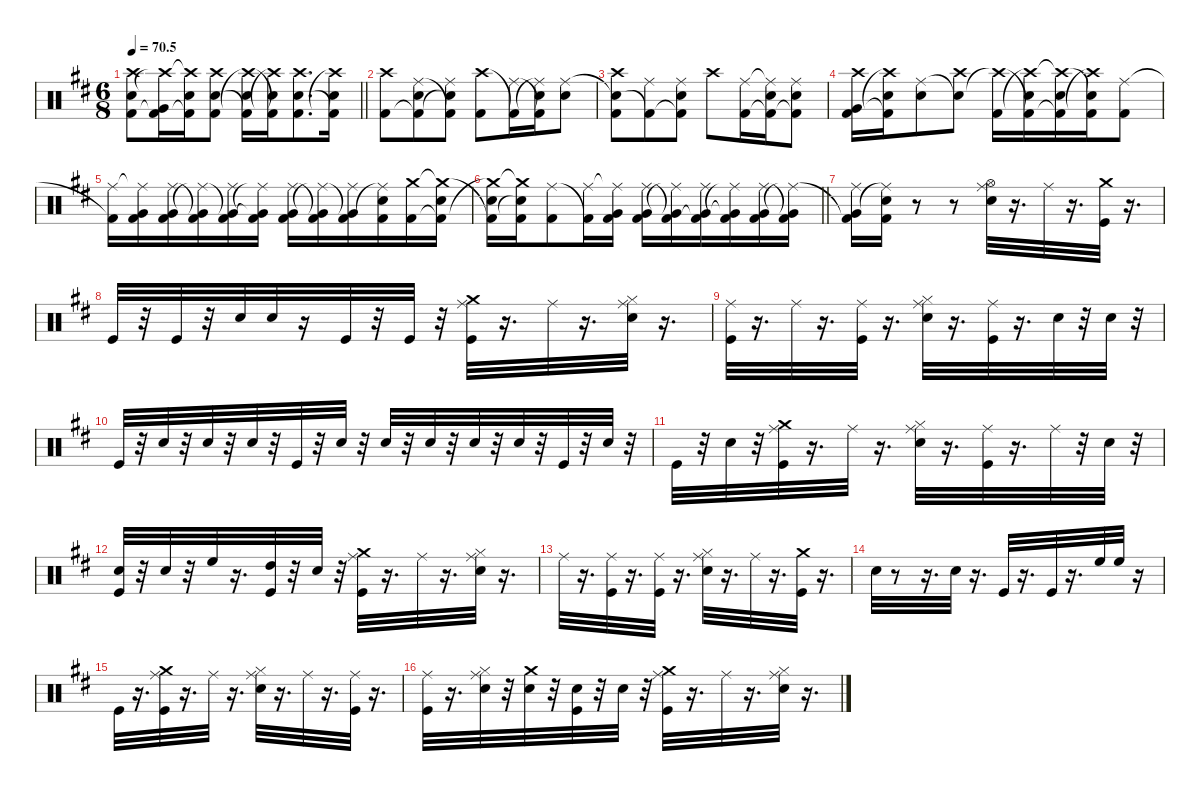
\defaultSystemsLayout 4
\hideDynamics
\bracketExtendMode nobrackets
\singleTrackTrackNamePolicy hidden
\multiTrackTrackNamePolicy hidden
\firstSystemTrackNameMode fullname
\firstSystemTrackNameOrientation horizontal
\otherSystemsTrackNameOrientation horizontal
\track ("Drumkit" "drm.") {defaultSystemsLayout 4 instrument percussion}
\staff {score}
\articulation defaults
\ts (6 8)
\tempo
70.5
\accidentals auto
\clef neutral
\ottava regular
\simile none
\barLineRight lightlight
\ks bminor
("Snare (hit) 2"{acc forcenatural} "Kick (hit) 2"{acc forcenatural} "Crash high (hit)"{acc #}).8{dy ff beam Down} ("Crash high (hit)"{t acc #} "Kick (hit) 2"{t acc forcenatural} "Very Low Tom (hit)"{acc forcenatural}).16{beam Down} ("Crash high (hit)"{t acc #} "Kick (hit) 2"{t acc forcenatural} "Snare (hit) 2"{acc forcenatural}).16{beam Down} ("Snare (hit) 2"{acc forcenatural} "Kick (hit) 2"{acc forcenatural} "Crash high (hit)"{acc #}).8{beam Down} ("Kick (hit) 2"{t acc forcenatural} "Crash high (hit)"{t acc #} "Snare (hit) 2"{acc forcenatural}).16{beam Down} ("Crash high (hit)"{t acc #} "Kick (hit) 2"{t acc forcenatural} "Snare (hit) 2"{acc forcenatural}).16{beam Down} ("Snare (hit) 2"{acc forcenatural} "Kick (hit) 2"{acc forcenatural} "Crash high (hit)"{acc #}).8{d beam Down} ("Kick (hit) 2"{t acc forcenatural} "Crash high (hit)"{t acc #} "Snare (hit) 2"{acc forcenatural}).16{beam Down} |
("Crash high (hit)"{acc #} "Kick (hit) 2"{acc forcenatural}).8{beam Down} ("Ride (middle)"{acc #} "Kick (hit) 2"{t acc forcenatural} "Snare (hit) 2"{acc forcenatural}).8{beam Down} ("Kick (hit) 2"{t acc forcenatural} "Snare (hit) 2"{t acc forcenatural} "Ride (middle)"{acc #}).8{beam Down} ("Crash high (hit)"{acc #} "Kick (hit) 2"{acc forcenatural}).8{beam Down} ("Kick (hit) 2"{t acc forcenatural} "Ride (middle)"{acc #}).16{beam Down} ("Ride (middle)"{t acc #} "Kick (hit) 2"{t acc forcenatural} "Snare (hit) 2"{acc forcenatural}).16{beam Down} ("Ride (middle)"{acc #} "Snare (hit) 2"{acc forcenatural}).8{beam Down} |
("Snare (hit) 2"{t acc forcenatural} "Crash high (hit)"{acc #} "Kick (hit) 2"{acc forcenatural}).8{beam Down} ("Kick (hit) 2"{t acc forcenatural} "Ride (middle)"{acc #}).8{beam Down} ("Kick (hit) 2"{t acc forcenatural} "Snare (hit) 2"{acc forcenatural} "Ride (middle)"{acc #}).8{beam Down} "Crash high (hit)"{acc #}.8{beam Down} ("Ride (middle)"{acc #} "Kick (hit) 2"{acc forcenatural}).16{beam Down} ("Ride (middle)"{t acc #} "Kick (hit) 2"{t acc forcenatural} "Snare (hit) 2"{acc forcenatural}).16{beam Down} ("Snare (hit) 2"{acc forcenatural} "Kick (hit) 2"{t acc forcenatural} "Ride (middle)"{acc #}).8{beam Down} |
("Very Low Tom (hit)"{acc forcenatural} "Kick (hit) 2"{acc forcenatural} "Crash high (hit)"{acc #}).16{beam Down} ("Kick (hit) 2"{t acc forcenatural} "Crash high (hit)"{t acc #} "Snare (hit) 2"{acc forcenatural}).16{beam Down} ("Ride (middle)"{acc #} "Snare (hit) 2"{acc forcenatural}).8{beam Down} ("Snare (hit) 2"{t acc forcenatural} "Crash high (hit)"{acc #}).8{beam Down} ("Crash high (hit)"{t acc #} "Kick (hit) 2"{acc forcenatural}).16{beam Down} ("Kick (hit) 2"{t acc forcenatural} "Crash high (hit)"{t acc #} "Snare (hit) 2"{acc forcenatural}).16{beam Down} ("Kick (hit) 2"{t acc forcenatural} "Crash high (hit)"{t acc #} "Snare (hit) 2"{acc forcenatural}).16{beam Down} ("Crash high (hit)"{t acc #} "Snare (hit) 2"{t acc forcenatural} "Kick (hit) 2"{acc forcenatural}).16{beam Down} ("Ride (middle)"{acc #} "Kick (hit) 2"{acc forcenatural}).8{beam Down} |
("Kick (hit) 2"{t acc forcenatural} "Ride (middle)"{acc #}).16{beam Down} ("Kick (hit) 2"{acc forcenatural} "Ride (middle)"{t acc #} "Very Low Tom (hit)"{acc forcenatural}).16{beam Down} ("Very Low Tom (hit)"{acc forcenatural} "Ride (middle)"{acc #} "Kick (hit) 2"{acc forcenatural}).16{beam Down} ("Ride (middle)"{t acc #} "Kick (hit) 2"{t acc forcenatural} "Very Low Tom (hit)"{acc forcenatural}).16{beam Down} ("Kick (hit) 2"{t acc forcenatural} "Very Low Tom (hit)"{acc forcenatural} "Ride (middle)"{acc #}).16{beam Down} ("Very Low Tom (hit)"{t acc forcenatural} "Ride (middle)"{t acc #} "Kick (hit) 2"{acc forcenatural}).16{beam Down} ("Very Low Tom (hit)"{acc forcenatural} "Ride (middle)"{acc #} "Kick (hit) 2"{acc forcenatural}).16{beam Down} ("Ride (middle)"{t acc #} "Kick (hit) 2"{t acc forcenatural} "Very Low Tom (hit)"{acc forcenatural}).16{beam Down} ("Kick (hit) 2"{t acc forcenatural} "Very Low Tom (hit)"{acc forcenatural} "Ride (middle)"{acc #}).16{beam Down} ("Ride (middle)"{t acc #} "Kick (hit) 2"{acc forcenatural} "Snare (hit) 2"{acc forcenatural}).16{beam Down} ("Kick (hit) 2"{acc forcenatural} "Crash medium (hit)"{acc forcenatural}).16{beam Down} ("Kick (hit) 2"{t acc forcenatural} "Crash medium (hit)"{t acc forcenatural} "Snare (hit) 2"{acc forcenatural}).16{beam Down} |
\barLineRight lightlight
("Crash medium (hit)"{t acc forcenatural} "Kick (hit) 2"{t acc forcenatural} "Snare (hit) 2"{acc forcenatural}).16{beam Down} ("Crash medium (hit)"{t acc forcenatural} "Snare (hit) 2"{t acc forcenatural} "Kick (hit) 2"{acc forcenatural}).16{beam Down} ("Ride (middle)"{acc #} "Kick (hit) 2"{acc forcenatural}).8{beam Down} ("Kick (hit) 2"{t acc forcenatural} "Ride (middle)"{acc #}).16{beam Down} ("Kick (hit) 2"{acc forcenatural} "Ride (middle)"{t acc #} "Very Low Tom (hit)"{acc forcenatural}).16{beam Down} ("Very Low Tom (hit)"{acc forcenatural} "Ride (middle)"{acc #} "Kick (hit) 2"{acc forcenatural}).16{beam Down} ("Ride (middle)"{t acc #} "Kick (hit) 2"{t acc forcenatural} "Very Low Tom (hit)"{acc forcenatural}).16{beam Down} ("Very Low Tom (hit)"{acc forcenatural} "Kick (hit) 2"{t acc forcenatural} "Ride (middle)"{acc #}).16{beam Down} ("Very Low Tom (hit)"{t acc forcenatural} "Ride (middle)"{t acc #} "Kick (hit) 2"{acc forcenatural}).16{beam Down} ("Very Low Tom (hit)"{acc forcenatural} "Ride (middle)"{acc #} "Kick (hit) 2"{acc forcenatural}).16{beam Down} ("Ride (middle)"{t acc #} "Kick (hit) 2"{t acc forcenatural} "Very Low Tom (hit)"{acc forcenatural}).16{beam Down} |
("Kick (hit) 2"{t acc forcenatural} "Very Low Tom (hit)"{acc forcenatural} "Ride (middle)"{acc #}).16{beam Down} ("Kick (hit) 2"{acc forcenatural} "Ride (middle)"{t acc #} "Snare (hit) 2"{acc forcenatural}).16{beam Down} r.8{beam Down} r.8{beam Down} ("Electric Snare (hit)"{acc forcenatural} "Hi-Hat (open)"{acc #} "Ride (middle)"{acc #}).32{dy fff beam Down} r.16{d beam Down} "Ride (middle)"{acc #}.32{dy f beam Down} r.16{d beam Down} ("Kick (hit)"{acc forcenatural} "Crash medium (hit)"{acc forcenatural}).32{beam Down} r.16{d beam Down} |
"Kick (hit)"{acc forcenatural}.32{beam Up} r.32{beam Up} "Kick (hit)"{acc forcenatural}.32{beam Up} r.32{beam Up} "Electric Snare (hit)"{acc forcenatural}.32{dy fff beam Up} "Electric Snare (hit)"{acc forcenatural}.32{dy f beam Up} r.16{beam Up} "Kick (hit)"{acc forcenatural}.32{beam Up} r.32{beam Up} "Kick (hit)"{acc forcenatural}.32{beam Up} r.32{beam Up} ("Crash medium (hit)"{acc forcenatural} "Kick (hit)"{acc forcenatural} "Ride (middle)"{acc #}).32{dy fff beam Down} r.16{d beam Down} "Ride (middle)"{acc #}.32{dy f beam Down} r.16{d beam Down} ("Electric Snare (hit)"{acc forcenatural} "Hi-Hat (closed)"{acc #} "Ride (middle)"{acc #}).32{dy fff beam Down} r.16{d beam Down} |
("Kick (hit)"{acc forcenatural} "Ride (middle)"{acc #}).32{beam Down} r.16{d beam Down} "Ride (middle)"{acc #}.32{dy f beam Down} r.16{d beam Down} ("Kick (hit)"{acc forcenatural} "Ride (middle)"{acc #}).32{beam Down} r.16{d beam Down} ("Electric Snare (hit)"{acc forcenatural} "Hi-Hat (closed)"{acc #} "Ride (middle)"{acc #}).32{dy fff beam Down} r.16{d beam Down} ("Kick (hit)"{acc forcenatural} "Ride (middle)"{acc #}).32{dy f beam Down} r.16{d beam Down} "Electric Snare (hit)"{acc forcenatural}.32{dy fff beam Down} r.32{beam Down} "Electric Snare (hit)"{acc forcenatural}.32{dy f beam Down} r.32{beam Down} |
"Kick (hit)"{acc forcenatural}.32{beam Up} r.32{beam Up} "Electric Snare (hit)"{acc forcenatural}.32{dy mf beam Up} r.32{beam Up} "Electric Snare (hit)"{acc forcenatural}.32{dy fff beam Up} r.32{beam Up} "Electric Snare (hit)"{acc forcenatural}.32{dy pp beam Up} r.32{beam Up} "Kick (hit)"{acc forcenatural}.32{dy f beam Up} r.32{beam Up} "Electric Snare (hit)"{acc forcenatural}.32{dy pp beam Up} r.32{beam Up} "Electric Snare (hit)"{acc forcenatural}.32{dy fff beam Up} r.32{beam Up} "Electric Snare (hit)"{acc forcenatural}.32{dy mp beam Up} r.32{beam Up} "Electric Snare (hit)"{acc forcenatural}.32{dy fff beam Up} r.32{beam Up} "Electric Snare (hit)"{acc forcenatural}.32{dy mp beam Up} r.32{beam Up} "Kick (hit)"{acc forcenatural}.32{dy f beam Up} r.32{beam Up} "Electric Snare (hit)"{acc forcenatural}.32{beam Up} r.32{beam Up} |
"Kick (hit)"{acc forcenatural}.32{beam Down} r.32{beam Down} "Electric Snare (hit)"{acc forcenatural}.32{dy mf beam Down} r.32{beam Down} ("Crash medium (hit)"{acc forcenatural} "Kick (hit)"{acc forcenatural} "Ride (middle)"{acc #}).32{dy fff beam Down} r.16{d beam Down} "Ride (middle)"{acc #}.32{dy f beam Down} r.16{d beam Down} ("Electric Snare (hit)"{acc forcenatural} "Hi-Hat (closed)"{acc #} "Ride (middle)"{acc #}).32{dy fff beam Down} r.16{d beam Down} ("Kick (hit)"{acc forcenatural} "Ride (middle)"{acc #}).32{beam Down} r.16{d beam Down} "Ride (middle)"{acc #}.32{beam Down} r.32{beam Down} "Electric Snare (hit)"{acc forcenatural}.32{dy pp beam Down} r.32{beam Down} |
("Kick (hit)"{acc forcenatural} "Electric Snare (hit)"{acc forcenatural}).32{dy f beam Up} r.32{beam Up} "Electric Snare (hit)"{acc forcenatural}.32{dy mf beam Up} r.32{beam Up} "High Floor Tom (hit)"{acc forcenatural}.32{dy fff beam Up} r.16{d beam Up} ("Kick (hit)"{acc forcenatural} "High Tom (hit)"{acc forcenatural}).32{dy f beam Up} r.32{beam Up} "Electric Snare (hit)"{acc forcenatural}.32{dy pp beam Up} r.32{beam Up} ("Crash medium (hit)"{acc forcenatural} "Kick (hit)"{acc forcenatural} "Ride (middle)"{acc #}).32{dy fff beam Down} r.16{d beam Down} "Ride (middle)"{acc #}.32{dy f beam Down} r.16{d beam Down} ("Electric Snare (hit)"{acc forcenatural} "Hi-Hat (closed)"{acc #} "Ride (middle)"{acc #}).32{dy fff beam Down} r.16{d beam Down} |
"Ride (middle)"{acc #}.32{beam Down} r.16{d beam Down} ("Kick (hit)"{acc forcenatural} "Ride (middle)"{acc #}).32{beam Down} r.16{d beam Down} ("Kick (hit)"{acc forcenatural} "Ride (middle)"{acc #}).32{dy f beam Down} r.16{d beam Down} ("Electric Snare (hit)"{acc forcenatural} "Hi-Hat (closed)"{acc #} "Ride (middle)"{acc #}).32{dy fff beam Down} r.16{d beam Down} "Ride (middle)"{acc #}.32{dy mp beam Down} r.16{d beam Down} ("Kick (hit)"{acc forcenatural} "Crash medium (hit)"{acc forcenatural}).32{dy f beam Down} r.16{d beam Down} |
"Electric Snare (hit)"{acc forcenatural}.32{dy fff beam Down} r.8{beam Down} r.16{d beam Down} "Electric Snare (hit)"{acc forcenatural}.32{dy f beam Down} r.16{d beam Down} "Kick (hit)"{acc forcenatural}.32{beam Up} r.16{d beam Up} "Kick (hit)"{acc forcenatural}.32{beam Up} r.16{d beam Up} "High Floor Tom (hit)"{acc forcenatural}.32{dy fff beam Up} "High Floor Tom (hit)"{acc forcenatural}.32{dy f beam Up} r.16{beam Up} |
"Kick (hit)"{acc forcenatural}.32{beam Down} r.16{d beam Down} ("Crash medium (hit)"{acc forcenatural} "Kick (hit)"{acc forcenatural} "Ride (middle)"{acc #}).32{dy fff beam Down} r.16{d beam Down} "Ride (middle)"{acc #}.32{dy f beam Down} r.16{d beam Down} ("Electric Snare (hit)"{acc forcenatural} "Hi-Hat (closed)"{acc #} "Ride (middle)"{acc #}).32{dy fff beam Down} r.16{d beam Down} "Ride (middle)"{acc #}.32{beam Down} r.16{d beam Down} ("Kick (hit)"{acc forcenatural} "Ride (middle)"{acc #}).32{beam Down} r.16{d beam Down} |
("Kick (hit)"{acc forcenatural} "Ride (middle)"{acc #}).32{dy f beam Down} r.16{d beam Down} ("Electric Snare (hit)"{acc forcenatural} "Hi-Hat (closed)"{acc #} "Ride (middle)"{acc #}).32{dy fff beam Down} r.32{beam Down} ("Electric Snare (hit)"{acc forcenatural} "Crash medium (hit)"{acc forcenatural}).32{dy mf beam Down} r.32{beam Down} ("Kick (hit)"{acc forcenatural} "Electric Snare (hit)"{acc forcenatural}).32{dy f beam Down} r.32{beam Down} "Electric Snare (hit)"{acc forcenatural}.32{dy p beam Down} r.32{beam Down} ("Crash medium (hit)"{acc forcenatural} "Kick (hit)"{acc forcenatural} "Ride (middle)"{acc #}).32{dy fff beam Down} r.16{d beam Down} "Ride (middle)"{acc #}.32{dy f beam Down} r.16{d beam Down} ("Electric Snare (hit)"{acc forcenatural} "Hi-Hat (closed)"{acc #} "Ride (middle)"{acc #}).32{dy fff beam Down} r.16{d beam Down}
